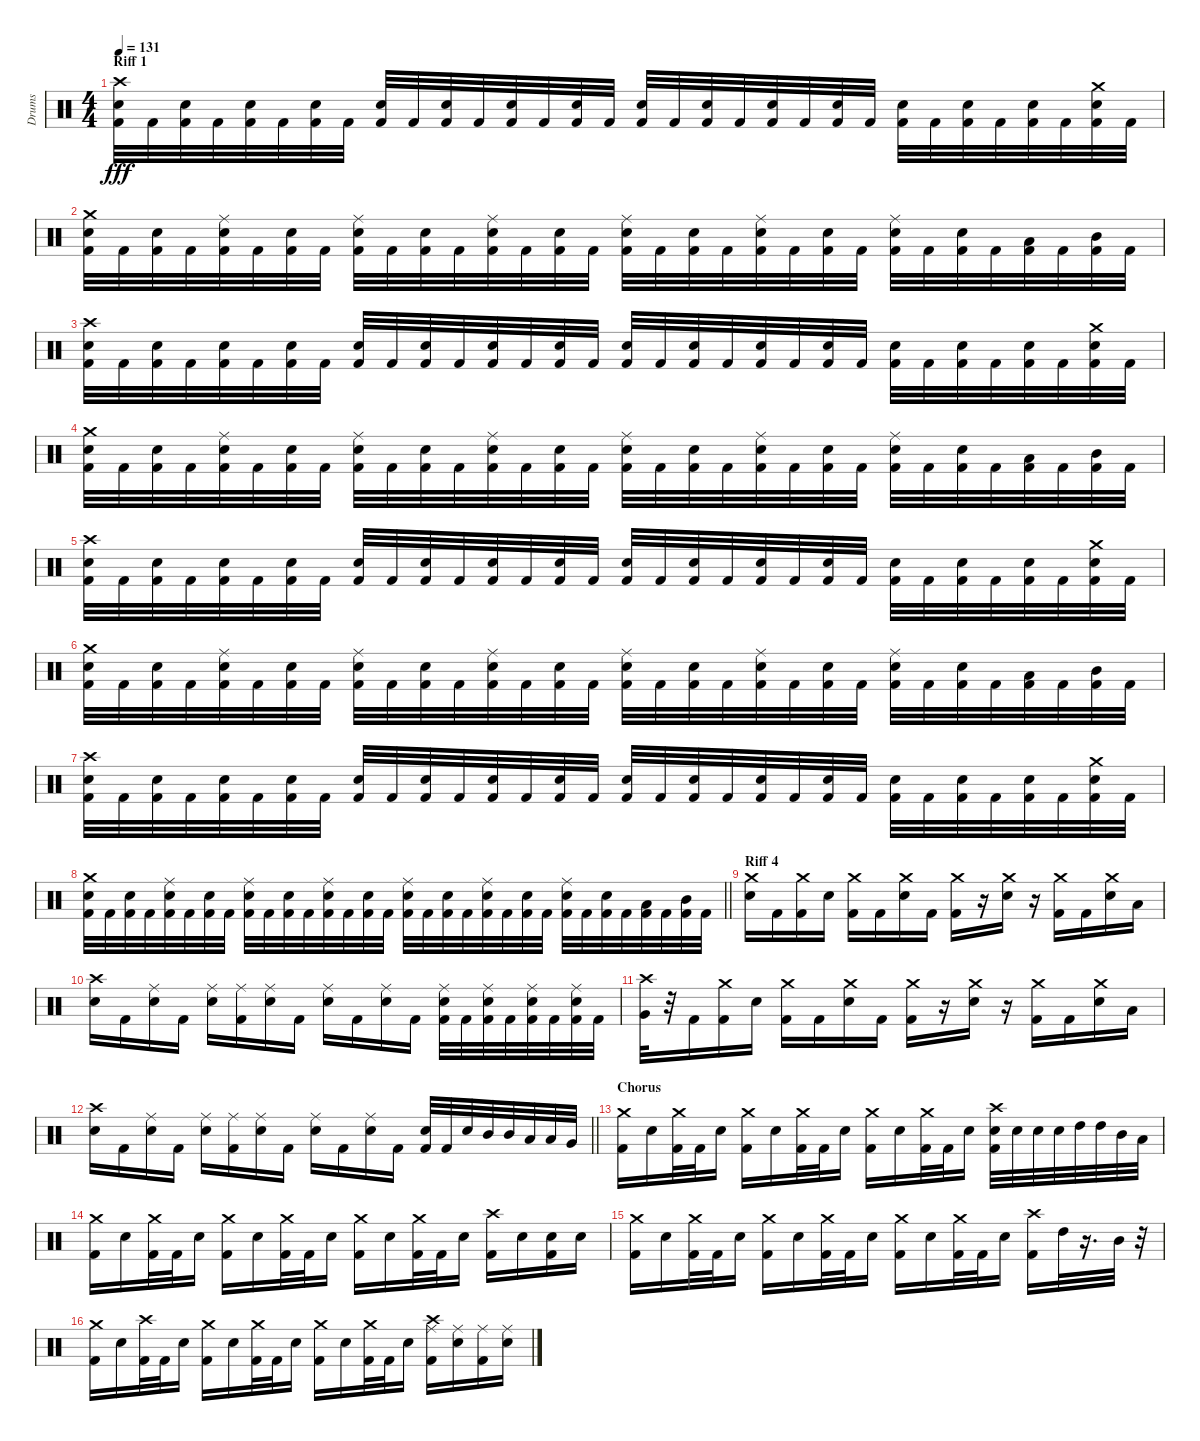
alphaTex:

\track ("Drums" "Drums") {instrument percussion}
\staff {score}
\articulation defaults
\ts (4 4)
\section ("" "Riff 1")
\tempo 131
\clef neutral
\ks c
("Crash high (hit)" "Kick (hit) 2" "Snare (hit) 2").32{dy fff} "Kick (hit) 2".32 ("Kick (hit) 2" "Snare (hit) 2").32 "Kick (hit) 2".32 ("Kick (hit) 2" "Snare (hit) 2").32 "Kick (hit) 2".32 ("Kick (hit) 2" "Snare (hit) 2").32 "Kick (hit) 2".32 ("Kick (hit) 2" "Snare (hit) 2").32 "Kick (hit) 2".32 ("Kick (hit) 2" "Snare (hit) 2").32 "Kick (hit) 2".32 ("Kick (hit) 2" "Snare (hit) 2").32 "Kick (hit) 2".32 ("Kick (hit) 2" "Snare (hit) 2").32 "Kick (hit) 2".32 ("Kick (hit) 2" "Snare (hit) 2").32 "Kick (hit) 2".32 ("Kick (hit) 2" "Snare (hit) 2").32 "Kick (hit) 2".32 ("Kick (hit) 2" "Snare (hit) 2").32 "Kick (hit) 2".32 ("Kick (hit) 2" "Snare (hit) 2").32 "Kick (hit) 2".32 ("Kick (hit) 2" "Snare (hit) 2").32 "Kick (hit) 2".32 ("Kick (hit) 2" "Snare (hit) 2").32 "Kick (hit) 2".32 ("Kick (hit) 2" "Snare (hit) 2").32 "Kick (hit) 2".32 ("Crash medium (hit)" "Kick (hit) 2" "Snare (hit) 2").32 "Kick (hit) 2".32 |
("Crash medium (hit)" "Kick (hit) 2" "Snare (hit) 2").32 "Kick (hit) 2".32 ("Kick (hit) 2" "Snare (hit) 2").32 "Kick (hit) 2".32 ("Kick (hit) 2" "Snare (hit) 2" "Ride (middle)").32 "Kick (hit) 2".32 ("Kick (hit) 2" "Snare (hit) 2").32 "Kick (hit) 2".32 ("Kick (hit) 2" "Snare (hit) 2" "Ride (middle)").32 "Kick (hit) 2".32 ("Kick (hit) 2" "Snare (hit) 2").32 "Kick (hit) 2".32 ("Kick (hit) 2" "Snare (hit) 2" "Ride (middle)").32 "Kick (hit) 2".32 ("Kick (hit) 2" "Snare (hit) 2").32 "Kick (hit) 2".32 ("Kick (hit) 2" "Snare (hit) 2" "Ride (middle)").32 "Kick (hit) 2".32 ("Kick (hit) 2" "Snare (hit) 2").32 "Kick (hit) 2".32 ("Kick (hit) 2" "Snare (hit) 2" "Ride (middle)").32 "Kick (hit) 2".32 ("Kick (hit) 2" "Snare (hit) 2").32 "Kick (hit) 2".32 ("Kick (hit) 2" "Snare (hit) 2" "Ride (middle)").32 "Kick (hit) 2".32 ("Kick (hit) 2" "Snare (hit) 2").32 "Kick (hit) 2".32 ("Kick (hit) 2" "Low Tom (hit)").32 "Kick (hit) 2".32 ("Kick (hit) 2" "Mid Tom (hit)").32 "Kick (hit) 2".32 |
("Crash high (hit)" "Kick (hit) 2" "Snare (hit) 2").32 "Kick (hit) 2".32 ("Kick (hit) 2" "Snare (hit) 2").32 "Kick (hit) 2".32 ("Kick (hit) 2" "Snare (hit) 2").32 "Kick (hit) 2".32 ("Kick (hit) 2" "Snare (hit) 2").32 "Kick (hit) 2".32 ("Kick (hit) 2" "Snare (hit) 2").32 "Kick (hit) 2".32 ("Kick (hit) 2" "Snare (hit) 2").32 "Kick (hit) 2".32 ("Kick (hit) 2" "Snare (hit) 2").32 "Kick (hit) 2".32 ("Kick (hit) 2" "Snare (hit) 2").32 "Kick (hit) 2".32 ("Kick (hit) 2" "Snare (hit) 2").32 "Kick (hit) 2".32 ("Kick (hit) 2" "Snare (hit) 2").32 "Kick (hit) 2".32 ("Kick (hit) 2" "Snare (hit) 2").32 "Kick (hit) 2".32 ("Kick (hit) 2" "Snare (hit) 2").32 "Kick (hit) 2".32 ("Kick (hit) 2" "Snare (hit) 2").32 "Kick (hit) 2".32 ("Kick (hit) 2" "Snare (hit) 2").32 "Kick (hit) 2".32 ("Kick (hit) 2" "Snare (hit) 2").32 "Kick (hit) 2".32 ("Crash medium (hit)" "Kick (hit) 2" "Snare (hit) 2").32 "Kick (hit) 2".32 |
("Crash medium (hit)" "Kick (hit) 2" "Snare (hit) 2").32 "Kick (hit) 2".32 ("Kick (hit) 2" "Snare (hit) 2").32 "Kick (hit) 2".32 ("Kick (hit) 2" "Snare (hit) 2" "Ride (middle)").32 "Kick (hit) 2".32 ("Kick (hit) 2" "Snare (hit) 2").32 "Kick (hit) 2".32 ("Kick (hit) 2" "Snare (hit) 2" "Ride (middle)").32 "Kick (hit) 2".32 ("Kick (hit) 2" "Snare (hit) 2").32 "Kick (hit) 2".32 ("Kick (hit) 2" "Snare (hit) 2" "Ride (middle)").32 "Kick (hit) 2".32 ("Kick (hit) 2" "Snare (hit) 2").32 "Kick (hit) 2".32 ("Kick (hit) 2" "Snare (hit) 2" "Ride (middle)").32 "Kick (hit) 2".32 ("Kick (hit) 2" "Snare (hit) 2").32 "Kick (hit) 2".32 ("Kick (hit) 2" "Snare (hit) 2" "Ride (middle)").32 "Kick (hit) 2".32 ("Kick (hit) 2" "Snare (hit) 2").32 "Kick (hit) 2".32 ("Kick (hit) 2" "Snare (hit) 2" "Ride (middle)").32 "Kick (hit) 2".32 ("Kick (hit) 2" "Snare (hit) 2").32 "Kick (hit) 2".32 ("Kick (hit) 2" "Low Tom (hit)").32 "Kick (hit) 2".32 ("Kick (hit) 2" "Mid Tom (hit)").32 "Kick (hit) 2".32 |
("Crash high (hit)" "Kick (hit) 2" "Snare (hit) 2").32 "Kick (hit) 2".32 ("Kick (hit) 2" "Snare (hit) 2").32 "Kick (hit) 2".32 ("Kick (hit) 2" "Snare (hit) 2").32 "Kick (hit) 2".32 ("Kick (hit) 2" "Snare (hit) 2").32 "Kick (hit) 2".32 ("Kick (hit) 2" "Snare (hit) 2").32 "Kick (hit) 2".32 ("Kick (hit) 2" "Snare (hit) 2").32 "Kick (hit) 2".32 ("Kick (hit) 2" "Snare (hit) 2").32 "Kick (hit) 2".32 ("Kick (hit) 2" "Snare (hit) 2").32 "Kick (hit) 2".32 ("Kick (hit) 2" "Snare (hit) 2").32 "Kick (hit) 2".32 ("Kick (hit) 2" "Snare (hit) 2").32 "Kick (hit) 2".32 ("Kick (hit) 2" "Snare (hit) 2").32 "Kick (hit) 2".32 ("Kick (hit) 2" "Snare (hit) 2").32 "Kick (hit) 2".32 ("Kick (hit) 2" "Snare (hit) 2").32 "Kick (hit) 2".32 ("Kick (hit) 2" "Snare (hit) 2").32 "Kick (hit) 2".32 ("Kick (hit) 2" "Snare (hit) 2").32 "Kick (hit) 2".32 ("Crash medium (hit)" "Kick (hit) 2" "Snare (hit) 2").32 "Kick (hit) 2".32 |
("Crash medium (hit)" "Kick (hit) 2" "Snare (hit) 2").32 "Kick (hit) 2".32 ("Kick (hit) 2" "Snare (hit) 2").32 "Kick (hit) 2".32 ("Kick (hit) 2" "Snare (hit) 2" "Ride (middle)").32 "Kick (hit) 2".32 ("Kick (hit) 2" "Snare (hit) 2").32 "Kick (hit) 2".32 ("Kick (hit) 2" "Snare (hit) 2" "Ride (middle)").32 "Kick (hit) 2".32 ("Kick (hit) 2" "Snare (hit) 2").32 "Kick (hit) 2".32 ("Kick (hit) 2" "Snare (hit) 2" "Ride (middle)").32 "Kick (hit) 2".32 ("Kick (hit) 2" "Snare (hit) 2").32 "Kick (hit) 2".32 ("Kick (hit) 2" "Snare (hit) 2" "Ride (middle)").32 "Kick (hit) 2".32 ("Kick (hit) 2" "Snare (hit) 2").32 "Kick (hit) 2".32 ("Kick (hit) 2" "Snare (hit) 2" "Ride (middle)").32 "Kick (hit) 2".32 ("Kick (hit) 2" "Snare (hit) 2").32 "Kick (hit) 2".32 ("Kick (hit) 2" "Snare (hit) 2" "Ride (middle)").32 "Kick (hit) 2".32 ("Kick (hit) 2" "Snare (hit) 2").32 "Kick (hit) 2".32 ("Kick (hit) 2" "Low Tom (hit)").32 "Kick (hit) 2".32 ("Kick (hit) 2" "Mid Tom (hit)").32 "Kick (hit) 2".32 |
("Crash high (hit)" "Kick (hit) 2" "Snare (hit) 2").32 "Kick (hit) 2".32 ("Kick (hit) 2" "Snare (hit) 2").32 "Kick (hit) 2".32 ("Kick (hit) 2" "Snare (hit) 2").32 "Kick (hit) 2".32 ("Kick (hit) 2" "Snare (hit) 2").32 "Kick (hit) 2".32 ("Kick (hit) 2" "Snare (hit) 2").32 "Kick (hit) 2".32 ("Kick (hit) 2" "Snare (hit) 2").32 "Kick (hit) 2".32 ("Kick (hit) 2" "Snare (hit) 2").32 "Kick (hit) 2".32 ("Kick (hit) 2" "Snare (hit) 2").32 "Kick (hit) 2".32 ("Kick (hit) 2" "Snare (hit) 2").32 "Kick (hit) 2".32 ("Kick (hit) 2" "Snare (hit) 2").32 "Kick (hit) 2".32 ("Kick (hit) 2" "Snare (hit) 2").32 "Kick (hit) 2".32 ("Kick (hit) 2" "Snare (hit) 2").32 "Kick (hit) 2".32 ("Kick (hit) 2" "Snare (hit) 2").32 "Kick (hit) 2".32 ("Kick (hit) 2" "Snare (hit) 2").32 "Kick (hit) 2".32 ("Kick (hit) 2" "Snare (hit) 2").32 "Kick (hit) 2".32 ("Crash medium (hit)" "Kick (hit) 2" "Snare (hit) 2").32 "Kick (hit) 2".32 |
\barLineRight lightlight
("Crash medium (hit)" "Kick (hit) 2" "Snare (hit) 2").32 "Kick (hit) 2".32 ("Kick (hit) 2" "Snare (hit) 2").32 "Kick (hit) 2".32 ("Kick (hit) 2" "Snare (hit) 2" "Ride (middle)").32 "Kick (hit) 2".32 ("Kick (hit) 2" "Snare (hit) 2").32 "Kick (hit) 2".32 ("Kick (hit) 2" "Snare (hit) 2" "Ride (middle)").32 "Kick (hit) 2".32 ("Kick (hit) 2" "Snare (hit) 2").32 "Kick (hit) 2".32 ("Kick (hit) 2" "Snare (hit) 2" "Ride (middle)").32 "Kick (hit) 2".32 ("Kick (hit) 2" "Snare (hit) 2").32 "Kick (hit) 2".32 ("Kick (hit) 2" "Snare (hit) 2" "Ride (middle)").32 "Kick (hit) 2".32 ("Kick (hit) 2" "Snare (hit) 2").32 "Kick (hit) 2".32 ("Kick (hit) 2" "Snare (hit) 2" "Ride (middle)").32 "Kick (hit) 2".32 ("Kick (hit) 2" "Snare (hit) 2").32 "Kick (hit) 2".32 ("Kick (hit) 2" "Snare (hit) 2" "Ride (middle)").32 "Kick (hit) 2".32 ("Kick (hit) 2" "Snare (hit) 2").32 "Kick (hit) 2".32 ("Kick (hit) 2" "Low Tom (hit)").32 "Kick (hit) 2".32 ("Kick (hit) 2" "Mid Tom (hit)").32 "Kick (hit) 2".32 |
\section ("" "Riff 4")
("Crash medium (hit)" "Snare (hit) 2").16 "Kick (hit) 2".16 ("Crash medium (hit)" "Kick (hit) 2").16 "Snare (hit) 2".16 ("Crash medium (hit)" "Kick (hit) 2").16 "Kick (hit) 2".16 ("Crash medium (hit)" "Snare (hit) 2").16 "Kick (hit) 2".16 ("Crash medium (hit)" "Kick (hit) 2").16 r.16 ("Crash medium (hit)" "Snare (hit) 2").16 r.16 ("Crash medium (hit)" "Kick (hit) 2").16 "Kick (hit) 2".16 ("Crash medium (hit)" "Snare (hit) 2").16 "Low Tom (hit)".16 |
("Crash high (hit)" "Snare (hit) 2").16 "Kick (hit) 2".16 ("Snare (hit) 2" "Ride (middle)").16 "Kick (hit) 2".16 ("Snare (hit) 2" "Ride (middle)").16 ("Kick (hit) 2" "Ride (middle)").16 ("Snare (hit) 2" "Ride (middle)").16 "Kick (hit) 2".16 ("Snare (hit) 2" "Ride (middle)").16 "Kick (hit) 2".16 ("Snare (hit) 2" "Ride (middle)").16 "Kick (hit) 2".16 ("Kick (hit) 2" "Snare (hit) 2" "Ride (middle)").32 "Kick (hit) 2".32 ("Kick (hit) 2" "Snare (hit) 2" "Ride (middle)").32 "Kick (hit) 2".32 ("Kick (hit) 2" "Snare (hit) 2" "Ride (middle)").32 "Kick (hit) 2".32 ("Kick (hit) 2" "Snare (hit) 2" "Ride (middle)").32 "Kick (hit) 2".32 |
("Crash high (hit)" "Very Low Tom (hit)").32 r.32 "Kick (hit) 2".16 ("Crash medium (hit)" "Kick (hit) 2").16 "Snare (hit) 2".16 ("Crash medium (hit)" "Kick (hit) 2").16 "Kick (hit) 2".16 ("Crash medium (hit)" "Snare (hit) 2").16 "Kick (hit) 2".16 ("Crash medium (hit)" "Kick (hit) 2").16 r.16 ("Crash medium (hit)" "Snare (hit) 2").16 r.16 ("Crash medium (hit)" "Kick (hit) 2").16 "Kick (hit) 2".16 ("Crash medium (hit)" "Snare (hit) 2").16 "Low Tom (hit)".16 |
\barLineRight lightlight
("Crash high (hit)" "Snare (hit) 2").16 "Kick (hit) 2".16 ("Snare (hit) 2" "Ride (middle)").16 "Kick (hit) 2".16 ("Snare (hit) 2" "Ride (middle)").16 ("Kick (hit) 2" "Ride (middle)").16 ("Snare (hit) 2" "Ride (middle)").16 "Kick (hit) 2".16 ("Snare (hit) 2" "Ride (middle)").16 "Kick (hit) 2".16 ("Snare (hit) 2" "Ride (middle)").16 "Kick (hit) 2".16 ("Kick (hit) 2" "Snare (hit) 2").32 "Kick (hit) 2".32 "Snare (hit) 2".32 "Mid Tom (hit)".32 "Mid Tom (hit)".32 "Low Tom (hit)".32 "Low Tom (hit)".32 "Very Low Tom (hit)".32 |
\section ("" "Chorus")
("Crash medium (hit)" "Kick (hit) 2").16 "Snare (hit) 2".16 ("Crash medium (hit)" "Kick (hit) 2").32 "Kick (hit) 2".32 "Snare (hit) 2".16 ("Crash medium (hit)" "Kick (hit) 2").16 "Snare (hit) 2".16 ("Crash medium (hit)" "Kick (hit) 2").32 "Kick (hit) 2".32 "Snare (hit) 2".16 ("Crash medium (hit)" "Kick (hit) 2").16 "Snare (hit) 2".16 ("Crash medium (hit)" "Kick (hit) 2").32 "Kick (hit) 2".32 "Snare (hit) 2".16 ("Crash high (hit)" "Kick (hit) 2" "Snare (hit) 2").32 "Snare (hit) 2".32 "Snare (hit) 2".32 "Snare (hit) 2".32 "High Tom (hit)".32 "High Tom (hit)".32 "Mid Tom (hit)".32 "Low Tom (hit)".32 |
("Crash medium (hit)" "Kick (hit) 2").16 "Snare (hit) 2".16 ("Crash medium (hit)" "Kick (hit) 2").32 "Kick (hit) 2".32 "Snare (hit) 2".16 ("Crash medium (hit)" "Kick (hit) 2").16 "Snare (hit) 2".16 ("Crash medium (hit)" "Kick (hit) 2").32 "Kick (hit) 2".32 "Snare (hit) 2".16 ("Crash medium (hit)" "Kick (hit) 2").16 "Snare (hit) 2".16 ("Crash medium (hit)" "Kick (hit) 2").32 "Kick (hit) 2".32 "Snare (hit) 2".16 ("Crash high (hit)" "Kick (hit) 2").16 "Snare (hit) 2".16 ("Kick (hit) 2" "Snare (hit) 2").16 "Snare (hit) 2".16 |
("Crash medium (hit)" "Kick (hit) 2").16 "Snare (hit) 2".16 ("Crash medium (hit)" "Kick (hit) 2").32 "Kick (hit) 2".32 "Snare (hit) 2".16 ("Crash medium (hit)" "Kick (hit) 2").16 "Snare (hit) 2".16 ("Crash medium (hit)" "Kick (hit) 2").32 "Kick (hit) 2".32 "Snare (hit) 2".16 ("Crash medium (hit)" "Kick (hit) 2").16 "Snare (hit) 2".16 ("Crash medium (hit)" "Kick (hit) 2").32 "Kick (hit) 2".32 "Snare (hit) 2".16 ("Crash high (hit)" "Kick (hit) 2").16 "High Tom (hit)".32 r.16{d} "Mid Tom (hit)".32 r.32 |
("Crash medium (hit)" "Kick (hit) 2").16 "Snare (hit) 2".16 ("Crash high (hit)" "Kick (hit) 2").32 "Kick (hit) 2".32 "Snare (hit) 2".16 ("Crash medium (hit)" "Kick (hit) 2").16 "Snare (hit) 2".16 ("Crash medium (hit)" "Kick (hit) 2").32 "Kick (hit) 2".32 "Snare (hit) 2".16 ("Crash medium (hit)" "Kick (hit) 2").16 "Snare (hit) 2".16 ("Crash medium (hit)" "Kick (hit) 2").32 "Kick (hit) 2".32 "Snare (hit) 2".16 ("Crash high (hit)" "Kick (hit) 2" "Ride (middle)").16 ("Snare (hit) 2" "Ride (middle)").16 ("Kick (hit) 2" "Ride (middle)").16 ("Snare (hit) 2" "Ride (middle)").16
